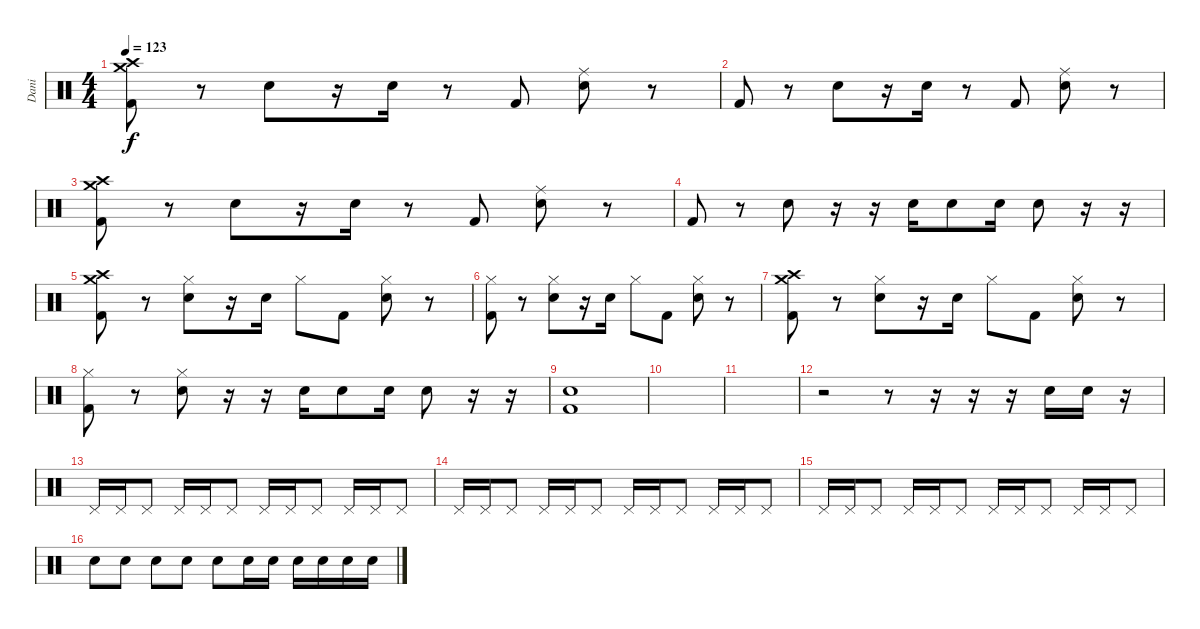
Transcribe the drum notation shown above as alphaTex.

\track ("Dani" "Dani") {instrument percussion}
\staff {score}
\articulation defaults
\ts (4 4)
\tempo 123
\clef neutral
\ks c
("Crash high (hit)" "Crash medium (hit)" "Kick (hit) 2").8{dy f} r.8 "Electric Snare (hit)".8 r.16 "Electric Snare (hit)".16 r.8 "Kick (hit) 2".8 ("Ride (middle)" "Electric Snare (hit)").8 r.8 |
"Kick (hit) 2".8 r.8 "Electric Snare (hit)".8 r.16 "Electric Snare (hit)".16 r.8 "Kick (hit) 2".8 ("Ride (middle)" "Electric Snare (hit)").8 r.8 |
("Crash high (hit)" "Crash medium (hit)" "Kick (hit) 2").8 r.8 "Electric Snare (hit)".8 r.16 "Electric Snare (hit)".16 r.8 "Kick (hit) 2".8 ("Ride (middle)" "Electric Snare (hit)").8 r.8 |
"Kick (hit) 2".8 r.8 "Electric Snare (hit)".8 r.16 r.16 "Electric Snare (hit)".16 "Electric Snare (hit)".8 "Electric Snare (hit)".16 "Electric Snare (hit)".8 r.16 r.16 |
("Crash high (hit)" "Crash medium (hit)" "Kick (hit) 2").8 r.8 ("Hi-Hat (closed)" "Electric Snare (hit)").8 r.16 "Electric Snare (hit)".16 "Hi-Hat (closed)".8 "Kick (hit) 2".8 ("Hi-Hat (closed)" "Electric Snare (hit)").8 r.8 |
("Hi-Hat (closed)" "Kick (hit) 2").8 r.8 ("Hi-Hat (closed)" "Electric Snare (hit)").8 r.16 "Electric Snare (hit)".16 "Hi-Hat (closed)".8 "Kick (hit) 2".8 ("Hi-Hat (closed)" "Electric Snare (hit)").8 r.8 |
("Crash high (hit)" "Crash medium (hit)" "Kick (hit) 2").8 r.8 ("Hi-Hat (closed)" "Electric Snare (hit)").8 r.16 "Electric Snare (hit)".16 "Hi-Hat (closed)".8 "Kick (hit) 2".8 ("Hi-Hat (closed)" "Electric Snare (hit)").8 r.8 |
("Hi-Hat (closed)" "Kick (hit) 2").8 r.8 ("Hi-Hat (closed)" "Electric Snare (hit)").8 r.16 r.16 "Electric Snare (hit)".16 "Electric Snare (hit)".8 "Electric Snare (hit)".16 "Electric Snare (hit)".8 r.16 r.16 |
("Electric Snare (hit)" "Kick (hit) 2").1 |
|
|
r.2 r.8 r.16 r.16 r.16 "Electric Snare (hit)".16 "Electric Snare (hit)".16 r.16 |
"Pedal Hi-Hat (hit)".16 "Pedal Hi-Hat (hit)".16 "Pedal Hi-Hat (hit)".8 "Pedal Hi-Hat (hit)".16 "Pedal Hi-Hat (hit)".16 "Pedal Hi-Hat (hit)".8 "Pedal Hi-Hat (hit)".16 "Pedal Hi-Hat (hit)".16 "Pedal Hi-Hat (hit)".8 "Pedal Hi-Hat (hit)".16 "Pedal Hi-Hat (hit)".16 "Pedal Hi-Hat (hit)".8 |
"Pedal Hi-Hat (hit)".16 "Pedal Hi-Hat (hit)".16 "Pedal Hi-Hat (hit)".8 "Pedal Hi-Hat (hit)".16 "Pedal Hi-Hat (hit)".16 "Pedal Hi-Hat (hit)".8 "Pedal Hi-Hat (hit)".16 "Pedal Hi-Hat (hit)".16 "Pedal Hi-Hat (hit)".8 "Pedal Hi-Hat (hit)".16 "Pedal Hi-Hat (hit)".16 "Pedal Hi-Hat (hit)".8 |
"Pedal Hi-Hat (hit)".16 "Pedal Hi-Hat (hit)".16 "Pedal Hi-Hat (hit)".8 "Pedal Hi-Hat (hit)".16 "Pedal Hi-Hat (hit)".16 "Pedal Hi-Hat (hit)".8 "Pedal Hi-Hat (hit)".16 "Pedal Hi-Hat (hit)".16 "Pedal Hi-Hat (hit)".8 "Pedal Hi-Hat (hit)".16 "Pedal Hi-Hat (hit)".16 "Pedal Hi-Hat (hit)".8 |
"Electric Snare (hit)".8 "Electric Snare (hit)".8 "Electric Snare (hit)".8 "Electric Snare (hit)".8 "Electric Snare (hit)".8 "Electric Snare (hit)".16 "Electric Snare (hit)".16 "Electric Snare (hit)".16 "Electric Snare (hit)".16 "Electric Snare (hit)".16 "Electric Snare (hit)".16
